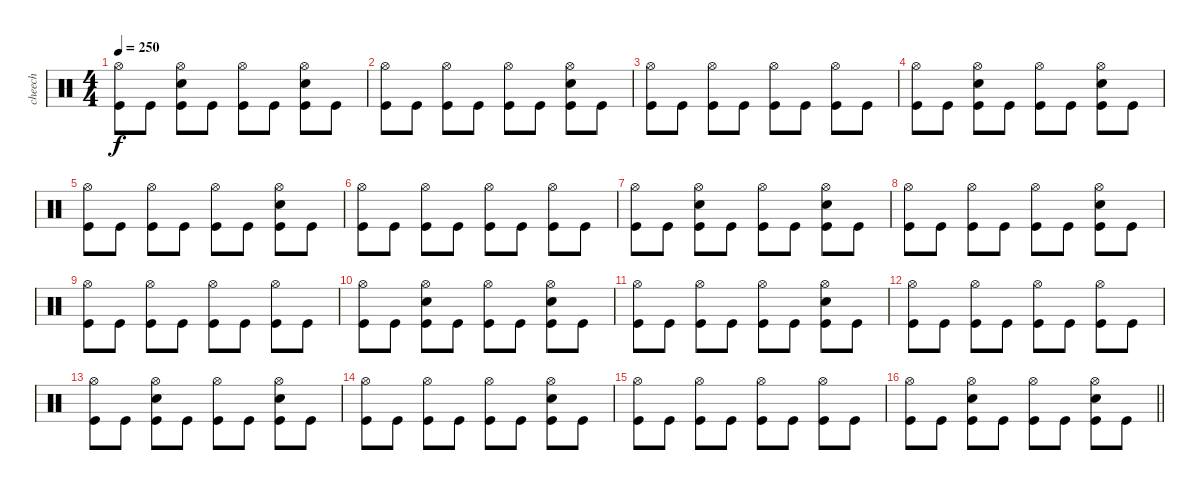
\track ("cheech" "cheech") {instrument percussion}
\staff {score}
\articulation defaults
\ts (4 4)
\tempo 250
\clef neutral
\ks c
("Hi-Hat (open)" "Kick (hit)").8{dy f} "Kick (hit)".8 ("Hi-Hat (open)" "Electric Snare (hit)" "Kick (hit)").8 "Kick (hit)".8 ("Hi-Hat (open)" "Kick (hit)").8 "Kick (hit)".8 ("Hi-Hat (open)" "Electric Snare (hit)" "Kick (hit)").8 "Kick (hit)".8 |
("Hi-Hat (open)" "Kick (hit)").8 "Kick (hit)".8 ("Hi-Hat (open)" "Kick (hit)").8 "Kick (hit)".8 ("Hi-Hat (open)" "Kick (hit)").8 "Kick (hit)".8 ("Hi-Hat (open)" "Electric Snare (hit)" "Kick (hit)").8 "Kick (hit)".8 |
("Hi-Hat (open)" "Kick (hit)").8 "Kick (hit)".8 ("Hi-Hat (open)" "Kick (hit)").8 "Kick (hit)".8 ("Hi-Hat (open)" "Kick (hit)").8 "Kick (hit)".8 ("Hi-Hat (open)" "Kick (hit)").8 "Kick (hit)".8 |
("Hi-Hat (open)" "Kick (hit)").8 "Kick (hit)".8 ("Hi-Hat (open)" "Electric Snare (hit)" "Kick (hit)").8 "Kick (hit)".8 ("Hi-Hat (open)" "Kick (hit)").8 "Kick (hit)".8 ("Hi-Hat (open)" "Electric Snare (hit)" "Kick (hit)").8 "Kick (hit)".8 |
("Hi-Hat (open)" "Kick (hit)").8 "Kick (hit)".8 ("Hi-Hat (open)" "Kick (hit)").8 "Kick (hit)".8 ("Hi-Hat (open)" "Kick (hit)").8 "Kick (hit)".8 ("Hi-Hat (open)" "Electric Snare (hit)" "Kick (hit)").8 "Kick (hit)".8 |
("Hi-Hat (open)" "Kick (hit)").8 "Kick (hit)".8 ("Hi-Hat (open)" "Kick (hit)").8 "Kick (hit)".8 ("Hi-Hat (open)" "Kick (hit)").8 "Kick (hit)".8 ("Hi-Hat (open)" "Kick (hit)").8 "Kick (hit)".8 |
("Hi-Hat (open)" "Kick (hit)").8 "Kick (hit)".8 ("Hi-Hat (open)" "Electric Snare (hit)" "Kick (hit)").8 "Kick (hit)".8 ("Hi-Hat (open)" "Kick (hit)").8 "Kick (hit)".8 ("Hi-Hat (open)" "Electric Snare (hit)" "Kick (hit)").8 "Kick (hit)".8 |
("Hi-Hat (open)" "Kick (hit)").8 "Kick (hit)".8 ("Hi-Hat (open)" "Kick (hit)").8 "Kick (hit)".8 ("Hi-Hat (open)" "Kick (hit)").8 "Kick (hit)".8 ("Hi-Hat (open)" "Electric Snare (hit)" "Kick (hit)").8 "Kick (hit)".8 |
("Hi-Hat (open)" "Kick (hit)").8 "Kick (hit)".8 ("Hi-Hat (open)" "Kick (hit)").8 "Kick (hit)".8 ("Hi-Hat (open)" "Kick (hit)").8 "Kick (hit)".8 ("Hi-Hat (open)" "Kick (hit)").8 "Kick (hit)".8 |
("Hi-Hat (open)" "Kick (hit)").8 "Kick (hit)".8 ("Hi-Hat (open)" "Electric Snare (hit)" "Kick (hit)").8 "Kick (hit)".8 ("Hi-Hat (open)" "Kick (hit)").8 "Kick (hit)".8 ("Hi-Hat (open)" "Electric Snare (hit)" "Kick (hit)").8 "Kick (hit)".8 |
("Hi-Hat (open)" "Kick (hit)").8 "Kick (hit)".8 ("Hi-Hat (open)" "Kick (hit)").8 "Kick (hit)".8 ("Hi-Hat (open)" "Kick (hit)").8 "Kick (hit)".8 ("Hi-Hat (open)" "Electric Snare (hit)" "Kick (hit)").8 "Kick (hit)".8 |
("Hi-Hat (open)" "Kick (hit)").8 "Kick (hit)".8 ("Hi-Hat (open)" "Kick (hit)").8 "Kick (hit)".8 ("Hi-Hat (open)" "Kick (hit)").8 "Kick (hit)".8 ("Hi-Hat (open)" "Kick (hit)").8 "Kick (hit)".8 |
("Hi-Hat (open)" "Kick (hit)").8 "Kick (hit)".8 ("Hi-Hat (open)" "Electric Snare (hit)" "Kick (hit)").8 "Kick (hit)".8 ("Hi-Hat (open)" "Kick (hit)").8 "Kick (hit)".8 ("Hi-Hat (open)" "Electric Snare (hit)" "Kick (hit)").8 "Kick (hit)".8 |
("Hi-Hat (open)" "Kick (hit)").8 "Kick (hit)".8 ("Hi-Hat (open)" "Kick (hit)").8 "Kick (hit)".8 ("Hi-Hat (open)" "Kick (hit)").8 "Kick (hit)".8 ("Hi-Hat (open)" "Electric Snare (hit)" "Kick (hit)").8 "Kick (hit)".8 |
("Hi-Hat (open)" "Kick (hit)").8 "Kick (hit)".8 ("Hi-Hat (open)" "Kick (hit)").8 "Kick (hit)".8 ("Hi-Hat (open)" "Kick (hit)").8 "Kick (hit)".8 ("Hi-Hat (open)" "Kick (hit)").8 "Kick (hit)".8 |
\barLineRight lightlight
("Hi-Hat (open)" "Kick (hit)").8 "Kick (hit)".8 ("Hi-Hat (open)" "Electric Snare (hit)" "Kick (hit)").8 "Kick (hit)".8 ("Hi-Hat (open)" "Kick (hit)").8 "Kick (hit)".8 ("Hi-Hat (open)" "Electric Snare (hit)" "Kick (hit)").8 "Kick (hit)".8
